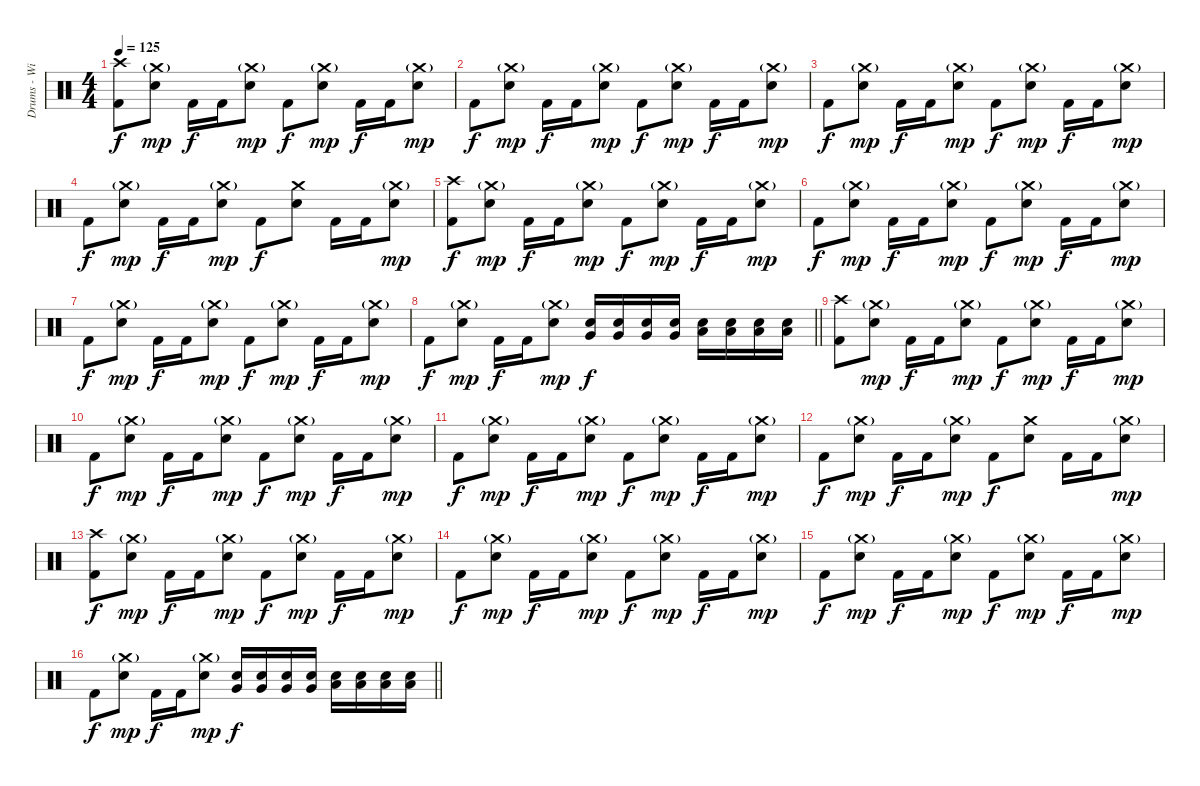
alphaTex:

\track ("Drums - Willie Buchan" "Drums - Wi") {instrument percussion}
\staff {score}
\articulation defaults
\ts (4 4)
\tempo 125
\clef neutral
\ks c
("Crash high (hit)" "Kick (hit) 2").8{dy f} ("Crash medium (hit)"{g} "Electric Snare (hit)").8{dy mp} "Kick (hit) 2".16{dy f} "Kick (hit) 2".16 ("Crash medium (hit)"{g} "Electric Snare (hit)").8{dy mp} "Kick (hit) 2".8{dy f} ("Crash medium (hit)"{g} "Electric Snare (hit)").8{dy mp} "Kick (hit) 2".16{dy f} "Kick (hit) 2".16 ("Crash medium (hit)"{g} "Electric Snare (hit)").8{dy mp} |
"Kick (hit) 2".8{dy f} ("Crash medium (hit)"{g} "Electric Snare (hit)").8{dy mp} "Kick (hit) 2".16{dy f} "Kick (hit) 2".16 ("Crash medium (hit)"{g} "Electric Snare (hit)").8{dy mp} "Kick (hit) 2".8{dy f} ("Crash medium (hit)"{g} "Electric Snare (hit)").8{dy mp} "Kick (hit) 2".16{dy f} "Kick (hit) 2".16 ("Crash medium (hit)"{g} "Electric Snare (hit)").8{dy mp} |
"Kick (hit) 2".8{dy f} ("Crash medium (hit)"{g} "Electric Snare (hit)").8{dy mp} "Kick (hit) 2".16{dy f} "Kick (hit) 2".16 ("Crash medium (hit)"{g} "Electric Snare (hit)").8{dy mp} "Kick (hit) 2".8{dy f} ("Crash medium (hit)"{g} "Electric Snare (hit)").8{dy mp} "Kick (hit) 2".16{dy f} "Kick (hit) 2".16 ("Crash medium (hit)"{g} "Electric Snare (hit)").8{dy mp} |
"Kick (hit) 2".8{dy f} ("Crash medium (hit)"{g} "Electric Snare (hit)").8{dy mp} "Kick (hit) 2".16{dy f} "Kick (hit) 2".16 ("Crash medium (hit)"{g} "Electric Snare (hit)").8{dy mp} "Kick (hit) 2".8{dy f} ("Crash medium (hit)" "Electric Snare (hit)").8 "Kick (hit) 2".16 "Kick (hit) 2".16 ("Crash medium (hit)"{g} "Electric Snare (hit)").8{dy mp} |
("Crash high (hit)" "Kick (hit) 2").8{dy f} ("Crash medium (hit)"{g} "Electric Snare (hit)").8{dy mp} "Kick (hit) 2".16{dy f} "Kick (hit) 2".16 ("Crash medium (hit)"{g} "Electric Snare (hit)").8{dy mp} "Kick (hit) 2".8{dy f} ("Crash medium (hit)"{g} "Electric Snare (hit)").8{dy mp} "Kick (hit) 2".16{dy f} "Kick (hit) 2".16 ("Crash medium (hit)"{g} "Electric Snare (hit)").8{dy mp} |
"Kick (hit) 2".8{dy f} ("Crash medium (hit)"{g} "Electric Snare (hit)").8{dy mp} "Kick (hit) 2".16{dy f} "Kick (hit) 2".16 ("Crash medium (hit)"{g} "Electric Snare (hit)").8{dy mp} "Kick (hit) 2".8{dy f} ("Crash medium (hit)"{g} "Electric Snare (hit)").8{dy mp} "Kick (hit) 2".16{dy f} "Kick (hit) 2".16 ("Crash medium (hit)"{g} "Electric Snare (hit)").8{dy mp} |
"Kick (hit) 2".8{dy f} ("Crash medium (hit)"{g} "Electric Snare (hit)").8{dy mp} "Kick (hit) 2".16{dy f} "Kick (hit) 2".16 ("Crash medium (hit)"{g} "Electric Snare (hit)").8{dy mp} "Kick (hit) 2".8{dy f} ("Crash medium (hit)"{g} "Electric Snare (hit)").8{dy mp} "Kick (hit) 2".16{dy f} "Kick (hit) 2".16 ("Crash medium (hit)"{g} "Electric Snare (hit)").8{dy mp} |
\barLineRight lightlight "Kick (hit) 2".8{dy f}
("Crash medium (hit)"{g} "Electric Snare (hit)").8{dy mp} "Kick (hit) 2".16{dy f} "Kick (hit) 2".16 ("Crash medium (hit)"{g} "Electric Snare (hit)").8{dy mp} ("Very Low Tom (hit)" "Electric Snare (hit)").16{dy f} ("Very Low Tom (hit)" "Electric Snare (hit)").16 ("Very Low Tom (hit)" "Electric Snare (hit)").16 ("Very Low Tom (hit)" "Electric Snare (hit)").16 ("Low Tom (hit)" "Electric Snare (hit)").16 ("Low Tom (hit)" "Electric Snare (hit)").16 ("Low Tom (hit)" "Electric Snare (hit)").16 ("Low Tom (hit)" "Electric Snare (hit)").16 |
("Crash high (hit)" "Kick (hit) 2").8 ("Crash medium (hit)"{g} "Electric Snare (hit)").8{dy mp} "Kick (hit) 2".16{dy f} "Kick (hit) 2".16 ("Crash medium (hit)"{g} "Electric Snare (hit)").8{dy mp} "Kick (hit) 2".8{dy f} ("Crash medium (hit)"{g} "Electric Snare (hit)").8{dy mp} "Kick (hit) 2".16{dy f} "Kick (hit) 2".16 ("Crash medium (hit)"{g} "Electric Snare (hit)").8{dy mp} |
"Kick (hit) 2".8{dy f} ("Crash medium (hit)"{g} "Electric Snare (hit)").8{dy mp} "Kick (hit) 2".16{dy f} "Kick (hit) 2".16 ("Crash medium (hit)"{g} "Electric Snare (hit)").8{dy mp} "Kick (hit) 2".8{dy f} ("Crash medium (hit)"{g} "Electric Snare (hit)").8{dy mp} "Kick (hit) 2".16{dy f} "Kick (hit) 2".16 ("Crash medium (hit)"{g} "Electric Snare (hit)").8{dy mp} |
"Kick (hit) 2".8{dy f} ("Crash medium (hit)"{g} "Electric Snare (hit)").8{dy mp} "Kick (hit) 2".16{dy f} "Kick (hit) 2".16 ("Crash medium (hit)"{g} "Electric Snare (hit)").8{dy mp} "Kick (hit) 2".8{dy f} ("Crash medium (hit)"{g} "Electric Snare (hit)").8{dy mp} "Kick (hit) 2".16{dy f} "Kick (hit) 2".16 ("Crash medium (hit)"{g} "Electric Snare (hit)").8{dy mp} |
"Kick (hit) 2".8{dy f} ("Crash medium (hit)"{g} "Electric Snare (hit)").8{dy mp} "Kick (hit) 2".16{dy f} "Kick (hit) 2".16 ("Crash medium (hit)"{g} "Electric Snare (hit)").8{dy mp} "Kick (hit) 2".8{dy f} ("Crash medium (hit)" "Electric Snare (hit)").8 "Kick (hit) 2".16 "Kick (hit) 2".16 ("Crash medium (hit)"{g} "Electric Snare (hit)").8{dy mp} |
("Crash high (hit)" "Kick (hit) 2").8{dy f} ("Crash medium (hit)"{g} "Electric Snare (hit)").8{dy mp} "Kick (hit) 2".16{dy f} "Kick (hit) 2".16 ("Crash medium (hit)"{g} "Electric Snare (hit)").8{dy mp} "Kick (hit) 2".8{dy f} ("Crash medium (hit)"{g} "Electric Snare (hit)").8{dy mp} "Kick (hit) 2".16{dy f} "Kick (hit) 2".16 ("Crash medium (hit)"{g} "Electric Snare (hit)").8{dy mp} |
"Kick (hit) 2".8{dy f} ("Crash medium (hit)"{g} "Electric Snare (hit)").8{dy mp} "Kick (hit) 2".16{dy f} "Kick (hit) 2".16 ("Crash medium (hit)"{g} "Electric Snare (hit)").8{dy mp} "Kick (hit) 2".8{dy f} ("Crash medium (hit)"{g} "Electric Snare (hit)").8{dy mp} "Kick (hit) 2".16{dy f} "Kick (hit) 2".16 ("Crash medium (hit)"{g} "Electric Snare (hit)").8{dy mp} |
"Kick (hit) 2".8{dy f} ("Crash medium (hit)"{g} "Electric Snare (hit)").8{dy mp} "Kick (hit) 2".16{dy f} "Kick (hit) 2".16 ("Crash medium (hit)"{g} "Electric Snare (hit)").8{dy mp} "Kick (hit) 2".8{dy f} ("Crash medium (hit)"{g} "Electric Snare (hit)").8{dy mp} "Kick (hit) 2".16{dy f} "Kick (hit) 2".16 ("Crash medium (hit)"{g} "Electric Snare (hit)").8{dy mp} |
\barLineRight lightlight "Kick (hit) 2".8{dy f}
("Crash medium (hit)"{g} "Electric Snare (hit)").8{dy mp} "Kick (hit) 2".16{dy f} "Kick (hit) 2".16 ("Crash medium (hit)"{g} "Electric Snare (hit)").8{dy mp} ("Very Low Tom (hit)" "Electric Snare (hit)").16{dy f} ("Very Low Tom (hit)" "Electric Snare (hit)").16 ("Very Low Tom (hit)" "Electric Snare (hit)").16 ("Very Low Tom (hit)" "Electric Snare (hit)").16 ("Low Tom (hit)" "Electric Snare (hit)").16 ("Low Tom (hit)" "Electric Snare (hit)").16 ("Low Tom (hit)" "Electric Snare (hit)").16 ("Low Tom (hit)" "Electric Snare (hit)").16
